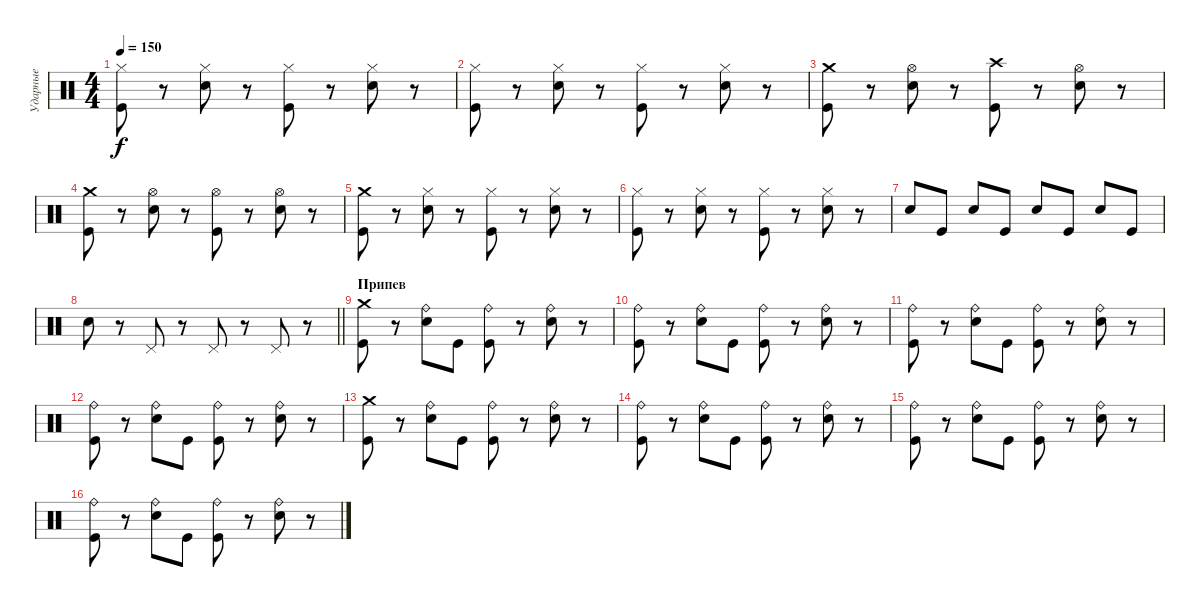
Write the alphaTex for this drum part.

\track ("Ударные" "Ударные") {instrument percussion}
\staff {score}
\articulation defaults
\ts (4 4)
\tempo 150
\clef neutral
\ks c
("Hi-Hat (closed)" "Kick (hit)").8{dy f} r.8 ("Hi-Hat (closed)" "Electric Snare (hit)").8 r.8 ("Hi-Hat (closed)" "Kick (hit)").8 r.8 ("Hi-Hat (closed)" "Electric Snare (hit)").8 r.8 |
("Hi-Hat (closed)" "Kick (hit)").8 r.8 ("Hi-Hat (closed)" "Electric Snare (hit)").8 r.8 ("Hi-Hat (closed)" "Kick (hit)").8 r.8 ("Hi-Hat (closed)" "Electric Snare (hit)").8 r.8 |
("Crash medium (hit)" "Kick (hit)").8 r.8 ("Hi-Hat (open)" "Electric Snare (hit)").8 r.8 ("Crash high (hit)" "Kick (hit)").8 r.8 ("Hi-Hat (open)" "Electric Snare (hit)").8 r.8 |
("Crash medium (hit)" "Kick (hit)").8 r.8 ("Hi-Hat (open)" "Electric Snare (hit)").8 r.8 ("Hi-Hat (open)" "Kick (hit)").8 r.8 ("Hi-Hat (open)" "Electric Snare (hit)").8 r.8 |
("Crash medium (hit)" "Kick (hit)").8 r.8 ("Hi-Hat (closed)" "Electric Snare (hit)").8 r.8 ("Hi-Hat (closed)" "Kick (hit)").8 r.8 ("Hi-Hat (closed)" "Electric Snare (hit)").8 r.8 |
("Hi-Hat (closed)" "Kick (hit)").8 r.8 ("Hi-Hat (closed)" "Electric Snare (hit)").8 r.8 ("Hi-Hat (closed)" "Kick (hit)").8 r.8 ("Hi-Hat (closed)" "Electric Snare (hit)").8 r.8 |
"Electric Snare (hit)".8 "Kick (hit)".8 "Electric Snare (hit)".8 "Kick (hit)".8 "Electric Snare (hit)".8 "Kick (hit)".8 "Electric Snare (hit)".8 "Kick (hit)".8 |
\barLineRight lightlight "Electric Snare (hit)".8
r.8 "Pedal Hi-Hat (hit)".8 r.8 "Pedal Hi-Hat (hit)".8 r.8 "Pedal Hi-Hat (hit)".8 r.8 |
\section ("" "Припев")
("Crash medium (hit)" "Kick (hit)").8 r.8 ("Ride (bell)" "Electric Snare (hit)").8 "Kick (hit)".8 ("Ride (bell)" "Kick (hit)").8 r.8 ("Ride (bell)" "Electric Snare (hit)").8 r.8 |
("Ride (bell)" "Kick (hit)").8 r.8 ("Ride (bell)" "Electric Snare (hit)").8 "Kick (hit)".8 ("Ride (bell)" "Kick (hit)").8 r.8 ("Ride (bell)" "Electric Snare (hit)").8 r.8 |
("Ride (bell)" "Kick (hit)").8 r.8 ("Ride (bell)" "Electric Snare (hit)").8 "Kick (hit)".8 ("Ride (bell)" "Kick (hit)").8 r.8 ("Ride (bell)" "Electric Snare (hit)").8 r.8 |
("Ride (bell)" "Kick (hit)").8 r.8 ("Ride (bell)" "Electric Snare (hit)").8 "Kick (hit)".8 ("Ride (bell)" "Kick (hit)").8 r.8 ("Ride (bell)" "Electric Snare (hit)").8 r.8 |
("Crash medium (hit)" "Kick (hit)").8 r.8 ("Ride (bell)" "Electric Snare (hit)").8 "Kick (hit)".8 ("Ride (bell)" "Kick (hit)").8 r.8 ("Ride (bell)" "Electric Snare (hit)").8 r.8 |
("Ride (bell)" "Kick (hit)").8 r.8 ("Ride (bell)" "Electric Snare (hit)").8 "Kick (hit)".8 ("Ride (bell)" "Kick (hit)").8 r.8 ("Ride (bell)" "Electric Snare (hit)").8 r.8 |
("Ride (bell)" "Kick (hit)").8 r.8 ("Ride (bell)" "Electric Snare (hit)").8 "Kick (hit)".8 ("Ride (bell)" "Kick (hit)").8 r.8 ("Ride (bell)" "Electric Snare (hit)").8 r.8 |
("Ride (bell)" "Kick (hit)").8 r.8 ("Ride (bell)" "Electric Snare (hit)").8 "Kick (hit)".8 ("Ride (bell)" "Kick (hit)").8 r.8 ("Ride (bell)" "Electric Snare (hit)").8 r.8
